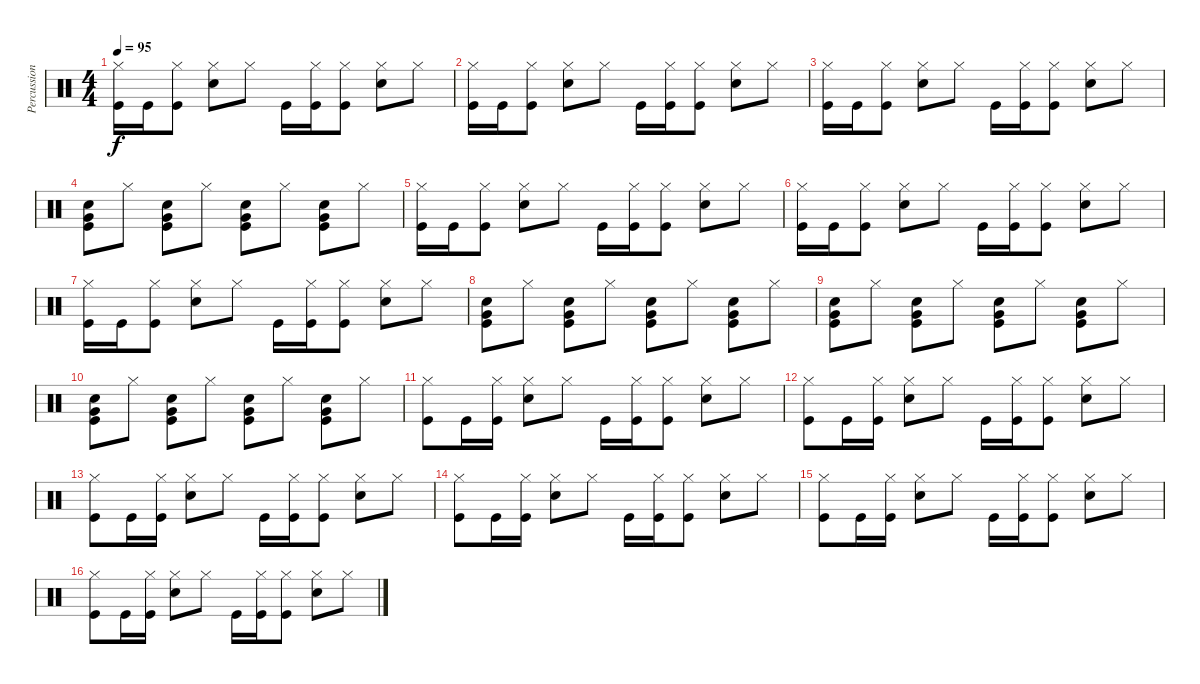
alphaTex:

\track ("Percussion" "Percussion") {instrument percussion}
\staff {score}
\articulation defaults
\ts (4 4)
\tempo 95
\clef neutral
\ks c
("Hi-Hat (closed)" "Kick (hit)").16{dy f} "Kick (hit)".16 ("Hi-Hat (closed)" "Kick (hit)").8 ("Hi-Hat (closed)" "Snare (hit) 2").8 "Hi-Hat (closed)".8 "Kick (hit)".16 ("Hi-Hat (closed)" "Kick (hit)").16 ("Hi-Hat (closed)" "Kick (hit)").8 ("Hi-Hat (closed)" "Snare (hit) 2").8 "Hi-Hat (closed)".8 |
("Hi-Hat (closed)" "Kick (hit)").16 "Kick (hit)".16 ("Hi-Hat (closed)" "Kick (hit)").8 ("Hi-Hat (closed)" "Snare (hit) 2").8 "Hi-Hat (closed)".8 "Kick (hit)".16 ("Hi-Hat (closed)" "Kick (hit)").16 ("Hi-Hat (closed)" "Kick (hit)").8 ("Hi-Hat (closed)" "Snare (hit) 2").8 "Hi-Hat (closed)".8 |
("Hi-Hat (closed)" "Kick (hit)").16 "Kick (hit)".16 ("Hi-Hat (closed)" "Kick (hit)").8 ("Hi-Hat (closed)" "Snare (hit) 2").8 "Hi-Hat (closed)".8 "Kick (hit)".16 ("Hi-Hat (closed)" "Kick (hit)").16 ("Hi-Hat (closed)" "Kick (hit)").8 ("Hi-Hat (closed)" "Snare (hit) 2").8 "Hi-Hat (closed)".8 |
("Very Low Tom (hit)" "Snare (hit) 2" "Kick (hit)").8 "Hi-Hat (closed)".8 ("Snare (hit) 2" "Kick (hit)" "Very Low Tom (hit)").8 "Hi-Hat (closed)".8 ("Snare (hit) 2" "Kick (hit)" "Very Low Tom (hit)").8 "Hi-Hat (closed)".8 ("Snare (hit) 2" "Very Low Tom (hit)" "Kick (hit)").8 "Hi-Hat (closed)".8 |
("Hi-Hat (closed)" "Kick (hit)").16 "Kick (hit)".16 ("Hi-Hat (closed)" "Kick (hit)").8 ("Hi-Hat (closed)" "Snare (hit) 2").8 "Hi-Hat (closed)".8 "Kick (hit)".16 ("Hi-Hat (closed)" "Kick (hit)").16 ("Hi-Hat (closed)" "Kick (hit)").8 ("Hi-Hat (closed)" "Snare (hit) 2").8 "Hi-Hat (closed)".8 |
("Hi-Hat (closed)" "Kick (hit)").16 "Kick (hit)".16 ("Hi-Hat (closed)" "Kick (hit)").8 ("Hi-Hat (closed)" "Snare (hit) 2").8 "Hi-Hat (closed)".8 "Kick (hit)".16 ("Hi-Hat (closed)" "Kick (hit)").16 ("Hi-Hat (closed)" "Kick (hit)").8 ("Hi-Hat (closed)" "Snare (hit) 2").8 "Hi-Hat (closed)".8 |
("Hi-Hat (closed)" "Kick (hit)").16 "Kick (hit)".16 ("Hi-Hat (closed)" "Kick (hit)").8 ("Hi-Hat (closed)" "Snare (hit) 2").8 "Hi-Hat (closed)".8 "Kick (hit)".16 ("Hi-Hat (closed)" "Kick (hit)").16 ("Hi-Hat (closed)" "Kick (hit)").8 ("Hi-Hat (closed)" "Snare (hit) 2").8 "Hi-Hat (closed)".8 |
("Very Low Tom (hit)" "Snare (hit) 2" "Kick (hit)").8 "Hi-Hat (closed)".8 ("Snare (hit) 2" "Kick (hit)" "Very Low Tom (hit)").8 "Hi-Hat (closed)".8 ("Snare (hit) 2" "Kick (hit)" "Very Low Tom (hit)").8 "Hi-Hat (closed)".8 ("Snare (hit) 2" "Very Low Tom (hit)" "Kick (hit)").8 "Hi-Hat (closed)".8 |
("Very Low Tom (hit)" "Snare (hit) 2" "Kick (hit)").8 "Hi-Hat (closed)".8 ("Snare (hit) 2" "Kick (hit)" "Very Low Tom (hit)").8 "Hi-Hat (closed)".8 ("Snare (hit) 2" "Kick (hit)" "Very Low Tom (hit)").8 "Hi-Hat (closed)".8 ("Snare (hit) 2" "Very Low Tom (hit)" "Kick (hit)").8 "Hi-Hat (closed)".8 |
("Very Low Tom (hit)" "Snare (hit) 2" "Kick (hit)").8 "Hi-Hat (closed)".8 ("Snare (hit) 2" "Kick (hit)" "Very Low Tom (hit)").8 "Hi-Hat (closed)".8 ("Snare (hit) 2" "Kick (hit)" "Very Low Tom (hit)").8 "Hi-Hat (closed)".8 ("Snare (hit) 2" "Very Low Tom (hit)" "Kick (hit)").8 "Hi-Hat (closed)".8 |
("Hi-Hat (closed)" "Kick (hit)").8 "Kick (hit)".16 ("Hi-Hat (closed)" "Kick (hit)").16 ("Hi-Hat (closed)" "Snare (hit) 2").8 "Hi-Hat (closed)".8 "Kick (hit)".16 ("Hi-Hat (closed)" "Kick (hit)").16 ("Hi-Hat (closed)" "Kick (hit)").8 ("Hi-Hat (closed)" "Snare (hit) 2").8 "Hi-Hat (closed)".8 |
("Hi-Hat (closed)" "Kick (hit)").8 "Kick (hit)".16 ("Hi-Hat (closed)" "Kick (hit)").16 ("Hi-Hat (closed)" "Snare (hit) 2").8 "Hi-Hat (closed)".8 "Kick (hit)".16 ("Hi-Hat (closed)" "Kick (hit)").16 ("Hi-Hat (closed)" "Kick (hit)").8 ("Hi-Hat (closed)" "Snare (hit) 2").8 "Hi-Hat (closed)".8 |
("Hi-Hat (closed)" "Kick (hit)").8 "Kick (hit)".16 ("Hi-Hat (closed)" "Kick (hit)").16 ("Hi-Hat (closed)" "Snare (hit) 2").8 "Hi-Hat (closed)".8 "Kick (hit)".16 ("Hi-Hat (closed)" "Kick (hit)").16 ("Hi-Hat (closed)" "Kick (hit)").8 ("Hi-Hat (closed)" "Snare (hit) 2").8 "Hi-Hat (closed)".8 |
("Hi-Hat (closed)" "Kick (hit)").8 "Kick (hit)".16 ("Hi-Hat (closed)" "Kick (hit)").16 ("Hi-Hat (closed)" "Snare (hit) 2").8 "Hi-Hat (closed)".8 "Kick (hit)".16 ("Hi-Hat (closed)" "Kick (hit)").16 ("Hi-Hat (closed)" "Kick (hit)").8 ("Hi-Hat (closed)" "Snare (hit) 2").8 "Hi-Hat (closed)".8 |
("Hi-Hat (closed)" "Kick (hit)").8 "Kick (hit)".16 ("Hi-Hat (closed)" "Kick (hit)").16 ("Hi-Hat (closed)" "Snare (hit) 2").8 "Hi-Hat (closed)".8 "Kick (hit)".16 ("Hi-Hat (closed)" "Kick (hit)").16 ("Hi-Hat (closed)" "Kick (hit)").8 ("Hi-Hat (closed)" "Snare (hit) 2").8 "Hi-Hat (closed)".8 |
("Hi-Hat (closed)" "Kick (hit)").8 "Kick (hit)".16 ("Hi-Hat (closed)" "Kick (hit)").16 ("Hi-Hat (closed)" "Snare (hit) 2").8 "Hi-Hat (closed)".8 "Kick (hit)".16 ("Hi-Hat (closed)" "Kick (hit)").16 ("Hi-Hat (closed)" "Kick (hit)").8 ("Hi-Hat (closed)" "Snare (hit) 2").8 "Hi-Hat (closed)".8
